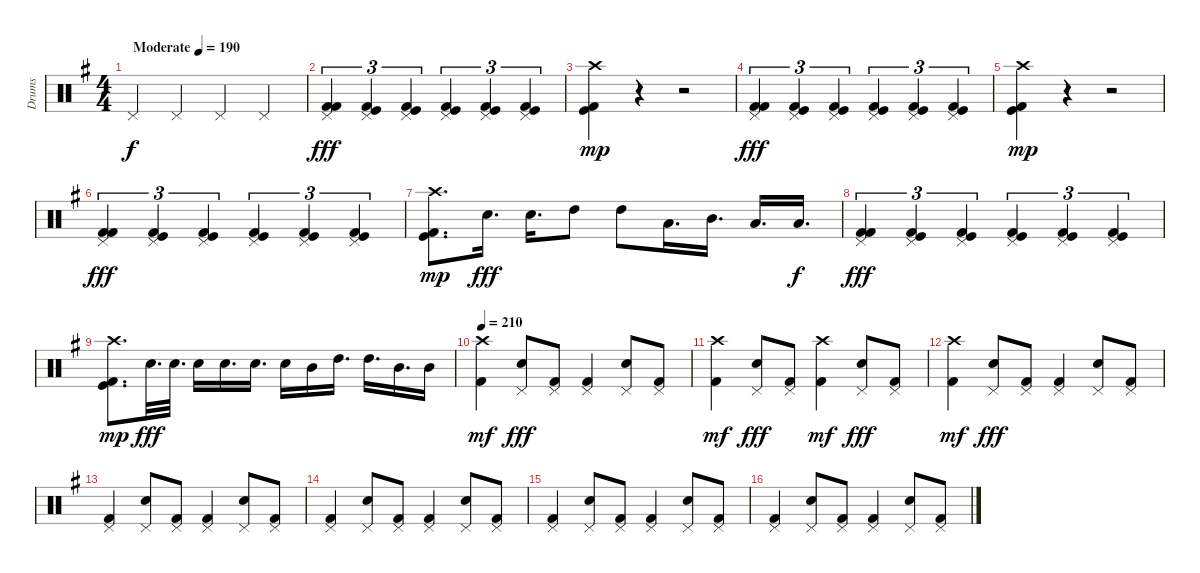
\track ("Drums" "Drums") {instrument percussion}
\staff {score}
\articulation defaults
\ts (4 4)
\tempo (190 "Moderate")
\clef neutral
\ks g "Pedal Hi-Hat (hit)".4{dy f} "Pedal Hi-Hat (hit)".4 "Pedal Hi-Hat (hit)".4 "Pedal Hi-Hat (hit)".4
|
("Kick (hit) 2" "Kick (hit) 2" "Pedal Hi-Hat (hit)").4{tu (3 2) dy fff} ("Kick (hit) 2" "Kick (hit)" "Pedal Hi-Hat (hit)").4{tu (3 2)} ("Kick (hit) 2" "Kick (hit)" "Pedal Hi-Hat (hit)").4{tu (3 2)} ("Kick (hit) 2" "Kick (hit)" "Pedal Hi-Hat (hit)").4{tu (3 2)} ("Kick (hit) 2" "Kick (hit)" "Pedal Hi-Hat (hit)").4{tu (3 2)} ("Kick (hit) 2" "Kick (hit)" "Pedal Hi-Hat (hit)").4{tu (3 2)} |
("Kick (hit) 2" "Kick (hit)" "Crash high (hit)").4{dy mp} r.4 r.2 |
("Kick (hit) 2" "Kick (hit) 2" "Pedal Hi-Hat (hit)").4{tu (3 2) dy fff} ("Kick (hit) 2" "Kick (hit)" "Pedal Hi-Hat (hit)").4{tu (3 2)} ("Kick (hit) 2" "Kick (hit)" "Pedal Hi-Hat (hit)").4{tu (3 2)} ("Kick (hit) 2" "Kick (hit)" "Pedal Hi-Hat (hit)").4{tu (3 2)} ("Kick (hit) 2" "Kick (hit)" "Pedal Hi-Hat (hit)").4{tu (3 2)} ("Kick (hit) 2" "Kick (hit)" "Pedal Hi-Hat (hit)").4{tu (3 2)} |
("Kick (hit) 2" "Kick (hit)" "Crash high (hit)").4{dy mp} r.4 r.2 |
("Kick (hit) 2" "Kick (hit) 2" "Pedal Hi-Hat (hit)").4{tu (3 2) dy fff} ("Kick (hit) 2" "Kick (hit)" "Pedal Hi-Hat (hit)").4{tu (3 2)} ("Kick (hit) 2" "Kick (hit)" "Pedal Hi-Hat (hit)").4{tu (3 2)} ("Kick (hit) 2" "Kick (hit)" "Pedal Hi-Hat (hit)").4{tu (3 2)} ("Kick (hit) 2" "Kick (hit)" "Pedal Hi-Hat (hit)").4{tu (3 2)} ("Kick (hit) 2" "Kick (hit)" "Pedal Hi-Hat (hit)").4{tu (3 2)} |
("Kick (hit) 2" "Kick (hit)" "Crash high (hit)").8{d dy mp} "Electric Snare (hit)".16{d dy fff} "Electric Snare (hit)".16{d} "High Tom (hit)".8 "High Tom (hit)".8 "Low Tom (hit)".16{d} "Mid Tom (hit)".16{d} "Low Tom (hit)".16{d} "Low Tom (hit)".16{d dy f} |
("Kick (hit) 2" "Kick (hit) 2" "Pedal Hi-Hat (hit)").4{tu (3 2) dy fff} ("Kick (hit) 2" "Kick (hit)" "Pedal Hi-Hat (hit)").4{tu (3 2)} ("Kick (hit) 2" "Kick (hit)" "Pedal Hi-Hat (hit)").4{tu (3 2)} ("Kick (hit) 2" "Kick (hit)" "Pedal Hi-Hat (hit)").4{tu (3 2)} ("Kick (hit) 2" "Kick (hit)" "Pedal Hi-Hat (hit)").4{tu (3 2)} ("Kick (hit) 2" "Kick (hit)" "Pedal Hi-Hat (hit)").4{tu (3 2)} |
("Kick (hit) 2" "Kick (hit)" "Crash high (hit)").8{d dy mp} "Electric Snare (hit)".32{d dy fff} "Electric Snare (hit)".32{d} "Electric Snare (hit)".16 "Electric Snare (hit)".16{d} "Electric Snare (hit)".16{d} "Electric Snare (hit)".16 "Mid Tom (hit)".16 "High Tom (hit)".16{d} "High Tom (hit)".16{d} "Mid Tom (hit)".16{d} "Mid Tom (hit)".16 |
\tempo 210
("Kick (hit) 2" "Crash high (hit)").4{dy mf} ("Electric Snare (hit)" "Pedal Hi-Hat (hit)").8{dy fff} ("Kick (hit) 2" "Pedal Hi-Hat (hit)").8 ("Kick (hit) 2" "Pedal Hi-Hat (hit)").4 ("Electric Snare (hit)" "Pedal Hi-Hat (hit)").8 ("Kick (hit) 2" "Pedal Hi-Hat (hit)").8 |
("Kick (hit) 2" "Crash high (hit)").4{dy mf} ("Electric Snare (hit)" "Pedal Hi-Hat (hit)").8{dy fff} ("Kick (hit) 2" "Pedal Hi-Hat (hit)").8 ("Kick (hit) 2" "Crash high (hit)").4{dy mf} ("Electric Snare (hit)" "Pedal Hi-Hat (hit)").8{dy fff} ("Kick (hit) 2" "Pedal Hi-Hat (hit)").8 |
("Kick (hit) 2" "Crash high (hit)").4{dy mf} ("Electric Snare (hit)" "Pedal Hi-Hat (hit)").8{dy fff} ("Kick (hit) 2" "Pedal Hi-Hat (hit)").8 ("Kick (hit) 2" "Pedal Hi-Hat (hit)").4 ("Electric Snare (hit)" "Pedal Hi-Hat (hit)").8 ("Kick (hit) 2" "Pedal Hi-Hat (hit)").8 |
("Kick (hit) 2" "Pedal Hi-Hat (hit)").4 ("Electric Snare (hit)" "Pedal Hi-Hat (hit)").8 ("Kick (hit) 2" "Pedal Hi-Hat (hit)").8 ("Kick (hit) 2" "Pedal Hi-Hat (hit)").4 ("Electric Snare (hit)" "Pedal Hi-Hat (hit)").8 ("Kick (hit) 2" "Pedal Hi-Hat (hit)").8 |
("Kick (hit) 2" "Pedal Hi-Hat (hit)").4 ("Electric Snare (hit)" "Pedal Hi-Hat (hit)").8 ("Kick (hit) 2" "Pedal Hi-Hat (hit)").8 ("Kick (hit) 2" "Pedal Hi-Hat (hit)").4 ("Electric Snare (hit)" "Pedal Hi-Hat (hit)").8 ("Kick (hit) 2" "Pedal Hi-Hat (hit)").8 |
("Kick (hit) 2" "Pedal Hi-Hat (hit)").4 ("Electric Snare (hit)" "Pedal Hi-Hat (hit)").8 ("Kick (hit) 2" "Pedal Hi-Hat (hit)").8 ("Kick (hit) 2" "Pedal Hi-Hat (hit)").4 ("Electric Snare (hit)" "Pedal Hi-Hat (hit)").8 ("Kick (hit) 2" "Pedal Hi-Hat (hit)").8 |
("Kick (hit) 2" "Pedal Hi-Hat (hit)").4 ("Electric Snare (hit)" "Pedal Hi-Hat (hit)").8 ("Kick (hit) 2" "Pedal Hi-Hat (hit)").8 ("Kick (hit) 2" "Pedal Hi-Hat (hit)").4 ("Electric Snare (hit)" "Pedal Hi-Hat (hit)").8 ("Kick (hit) 2" "Pedal Hi-Hat (hit)").8
